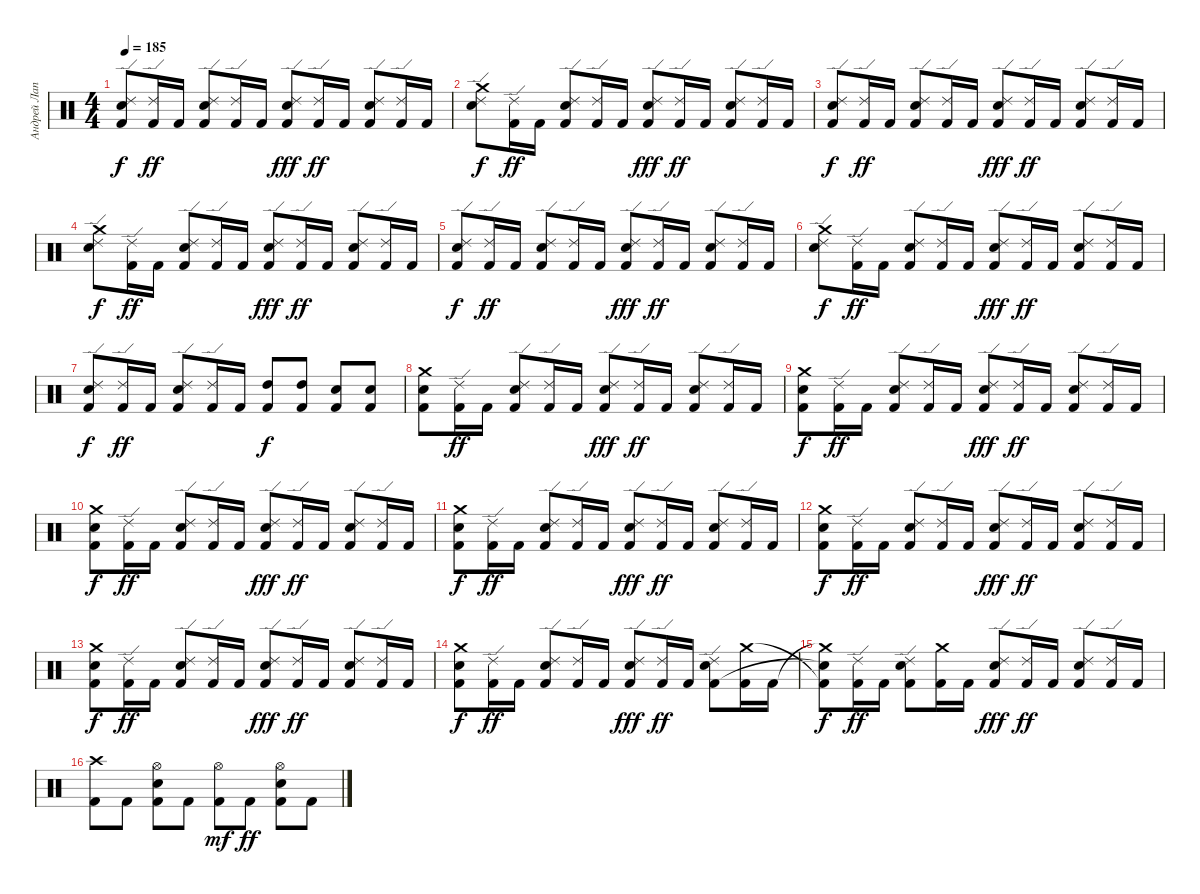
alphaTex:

\track ("Андрей Лаптев" "Андрей Лап") {instrument percussion}
\staff {score}
\articulation defaults
\ts (4 4)
\tempo 185
\clef neutral
\ks c
("Ride (edge) 2" "Kick (hit) 2" "Electric Snare (hit)").8{dy f} ("Kick (hit) 2" "Ride (edge) 2").16{dy ff} "Kick (hit) 2".16 ("Kick (hit) 2" "Electric Snare (hit)" "Ride (edge) 2").8 ("Kick (hit) 2" "Ride (edge) 2").16 "Kick (hit) 2".16 ("Kick (hit) 2" "Ride (edge) 2" "Electric Snare (hit)").8{dy fff} ("Kick (hit) 2" "Ride (edge) 2").16{dy ff} "Kick (hit) 2".16 ("Ride (edge) 2" "Electric Snare (hit)" "Kick (hit) 2").8 ("Kick (hit) 2" "Ride (edge) 2").16 "Kick (hit) 2".16 |
("Ride (edge) 2" "Crash medium (hit)" "Electric Snare (hit)").8{dy f} ("Kick (hit) 2" "Ride (edge) 2").16{dy ff} "Kick (hit) 2".16 ("Kick (hit) 2" "Electric Snare (hit)" "Ride (edge) 2").8 ("Kick (hit) 2" "Ride (edge) 2").16 "Kick (hit) 2".16 ("Kick (hit) 2" "Ride (edge) 2" "Electric Snare (hit)").8{dy fff} ("Kick (hit) 2" "Ride (edge) 2").16{dy ff} "Kick (hit) 2".16 ("Ride (edge) 2" "Electric Snare (hit)" "Kick (hit) 2").8 ("Kick (hit) 2" "Ride (edge) 2").16 "Kick (hit) 2".16 |
("Ride (edge) 2" "Kick (hit) 2" "Electric Snare (hit)").8{dy f} ("Kick (hit) 2" "Ride (edge) 2").16{dy ff} "Kick (hit) 2".16 ("Kick (hit) 2" "Electric Snare (hit)" "Ride (edge) 2").8 ("Kick (hit) 2" "Ride (edge) 2").16 "Kick (hit) 2".16 ("Kick (hit) 2" "Ride (edge) 2" "Electric Snare (hit)").8{dy fff} ("Kick (hit) 2" "Ride (edge) 2").16{dy ff} "Kick (hit) 2".16 ("Ride (edge) 2" "Electric Snare (hit)" "Kick (hit) 2").8 ("Kick (hit) 2" "Ride (edge) 2").16 "Kick (hit) 2".16 |
("Ride (edge) 2" "Crash medium (hit)" "Electric Snare (hit)").8{dy f} ("Kick (hit) 2" "Ride (edge) 2").16{dy ff} "Kick (hit) 2".16 ("Kick (hit) 2" "Electric Snare (hit)" "Ride (edge) 2").8 ("Kick (hit) 2" "Ride (edge) 2").16 "Kick (hit) 2".16 ("Kick (hit) 2" "Ride (edge) 2" "Electric Snare (hit)").8{dy fff} ("Kick (hit) 2" "Ride (edge) 2").16{dy ff} "Kick (hit) 2".16 ("Ride (edge) 2" "Electric Snare (hit)" "Kick (hit) 2").8 ("Kick (hit) 2" "Ride (edge) 2").16 "Kick (hit) 2".16 |
("Ride (edge) 2" "Kick (hit) 2" "Electric Snare (hit)").8{dy f} ("Kick (hit) 2" "Ride (edge) 2").16{dy ff} "Kick (hit) 2".16 ("Kick (hit) 2" "Electric Snare (hit)" "Ride (edge) 2").8 ("Kick (hit) 2" "Ride (edge) 2").16 "Kick (hit) 2".16 ("Kick (hit) 2" "Ride (edge) 2" "Electric Snare (hit)").8{dy fff} ("Kick (hit) 2" "Ride (edge) 2").16{dy ff} "Kick (hit) 2".16 ("Ride (edge) 2" "Electric Snare (hit)" "Kick (hit) 2").8 ("Kick (hit) 2" "Ride (edge) 2").16 "Kick (hit) 2".16 |
("Ride (edge) 2" "Crash medium (hit)" "Electric Snare (hit)").8{dy f} ("Kick (hit) 2" "Ride (edge) 2").16{dy ff} "Kick (hit) 2".16 ("Kick (hit) 2" "Electric Snare (hit)" "Ride (edge) 2").8 ("Kick (hit) 2" "Ride (edge) 2").16 "Kick (hit) 2".16 ("Kick (hit) 2" "Ride (edge) 2" "Electric Snare (hit)").8{dy fff} ("Kick (hit) 2" "Ride (edge) 2").16{dy ff} "Kick (hit) 2".16 ("Ride (edge) 2" "Electric Snare (hit)" "Kick (hit) 2").8 ("Kick (hit) 2" "Ride (edge) 2").16 "Kick (hit) 2".16 |
("Ride (edge) 2" "Kick (hit) 2" "Electric Snare (hit)").8{dy f} ("Kick (hit) 2" "Ride (edge) 2").16{dy ff} "Kick (hit) 2".16 ("Kick (hit) 2" "Electric Snare (hit)" "Ride (edge) 2").8 ("Kick (hit) 2" "Ride (edge) 2").16 "Kick (hit) 2".16 ("High Tom (hit)" "Kick (hit) 2").8{dy f} ("High Tom (hit)" "Kick (hit) 2").8 ("Electric Snare (hit)" "Kick (hit) 2").8 ("Electric Snare (hit)" "Kick (hit) 2").8 |
("Kick (hit) 2" "Crash medium (hit)" "Electric Snare (hit)").8 ("Kick (hit) 2" "Ride (edge) 2").16{dy ff} "Kick (hit) 2".16 ("Kick (hit) 2" "Electric Snare (hit)" "Ride (edge) 2").8 ("Kick (hit) 2" "Ride (edge) 2").16 "Kick (hit) 2".16 ("Kick (hit) 2" "Ride (edge) 2" "Electric Snare (hit)").8{dy fff} ("Kick (hit) 2" "Ride (edge) 2").16{dy ff} "Kick (hit) 2".16 ("Ride (edge) 2" "Electric Snare (hit)" "Kick (hit) 2").8 ("Kick (hit) 2" "Ride (edge) 2").16 "Kick (hit) 2".16 |
("Crash medium (hit)" "Kick (hit) 2" "Electric Snare (hit)").8{dy f} ("Kick (hit) 2" "Ride (edge) 2").16{dy ff} "Kick (hit) 2".16 ("Kick (hit) 2" "Electric Snare (hit)" "Ride (edge) 2").8 ("Kick (hit) 2" "Ride (edge) 2").16 "Kick (hit) 2".16 ("Kick (hit) 2" "Ride (edge) 2" "Electric Snare (hit)").8{dy fff} ("Kick (hit) 2" "Ride (edge) 2").16{dy ff} "Kick (hit) 2".16 ("Ride (edge) 2" "Electric Snare (hit)" "Kick (hit) 2").8 ("Kick (hit) 2" "Ride (edge) 2").16 "Kick (hit) 2".16 |
("Kick (hit) 2" "Crash medium (hit)" "Electric Snare (hit)").8{dy f} ("Kick (hit) 2" "Ride (edge) 2").16{dy ff} "Kick (hit) 2".16 ("Kick (hit) 2" "Electric Snare (hit)" "Ride (edge) 2").8 ("Kick (hit) 2" "Ride (edge) 2").16 "Kick (hit) 2".16 ("Kick (hit) 2" "Ride (edge) 2" "Electric Snare (hit)").8{dy fff} ("Kick (hit) 2" "Ride (edge) 2").16{dy ff} "Kick (hit) 2".16 ("Ride (edge) 2" "Electric Snare (hit)" "Kick (hit) 2").8 ("Kick (hit) 2" "Ride (edge) 2").16 "Kick (hit) 2".16 |
("Crash medium (hit)" "Kick (hit) 2" "Electric Snare (hit)").8{dy f} ("Kick (hit) 2" "Ride (edge) 2").16{dy ff} "Kick (hit) 2".16 ("Kick (hit) 2" "Electric Snare (hit)" "Ride (edge) 2").8 ("Kick (hit) 2" "Ride (edge) 2").16 "Kick (hit) 2".16 ("Kick (hit) 2" "Ride (edge) 2" "Electric Snare (hit)").8{dy fff} ("Kick (hit) 2" "Ride (edge) 2").16{dy ff} "Kick (hit) 2".16 ("Ride (edge) 2" "Electric Snare (hit)" "Kick (hit) 2").8 ("Kick (hit) 2" "Ride (edge) 2").16 "Kick (hit) 2".16 |
("Kick (hit) 2" "Crash medium (hit)" "Electric Snare (hit)").8{dy f} ("Kick (hit) 2" "Ride (edge) 2").16{dy ff} "Kick (hit) 2".16 ("Kick (hit) 2" "Electric Snare (hit)" "Ride (edge) 2").8 ("Kick (hit) 2" "Ride (edge) 2").16 "Kick (hit) 2".16 ("Kick (hit) 2" "Ride (edge) 2" "Electric Snare (hit)").8{dy fff} ("Kick (hit) 2" "Ride (edge) 2").16{dy ff} "Kick (hit) 2".16 ("Ride (edge) 2" "Electric Snare (hit)" "Kick (hit) 2").8 ("Kick (hit) 2" "Ride (edge) 2").16 "Kick (hit) 2".16 |
("Crash medium (hit)" "Kick (hit) 2" "Electric Snare (hit)").8{dy f} ("Kick (hit) 2" "Ride (edge) 2").16{dy ff} "Kick (hit) 2".16 ("Kick (hit) 2" "Electric Snare (hit)" "Ride (edge) 2").8 ("Kick (hit) 2" "Ride (edge) 2").16 "Kick (hit) 2".16 ("Kick (hit) 2" "Ride (edge) 2" "Electric Snare (hit)").8{dy fff} ("Kick (hit) 2" "Ride (edge) 2").16{dy ff} "Kick (hit) 2".16 ("Ride (edge) 2" "Electric Snare (hit)" "Kick (hit) 2").8 ("Kick (hit) 2" "Ride (edge) 2").16 "Kick (hit) 2".16 |
("Crash medium (hit)" "Kick (hit) 2" "Electric Snare (hit)").8{dy f} ("Kick (hit) 2" "Ride (edge) 2").16{dy ff} "Kick (hit) 2".16 ("Kick (hit) 2" "Electric Snare (hit)" "Ride (edge) 2").8 ("Kick (hit) 2" "Ride (edge) 2").16 "Kick (hit) 2".16 ("Kick (hit) 2" "Ride (edge) 2" "Electric Snare (hit)").8{dy fff} ("Kick (hit) 2" "Ride (edge) 2").16{dy ff} "Kick (hit) 2".16 ("Ride (edge) 2" "Electric Snare (hit)" "Kick (hit) 2").8 ("Kick (hit) 2" "Crash medium (hit)").16 "Kick (hit) 2".16 |
("Crash medium (hit)"{t} "Kick (hit) 2"{t} "Electric Snare (hit)"{t}).8{dy f} ("Kick (hit) 2" "Ride (edge) 2").16{dy ff} "Kick (hit) 2".16 ("Kick (hit) 2" "Electric Snare (hit)" "Ride (edge) 2").8 ("Kick (hit) 2" "Crash medium (hit)").16 "Kick (hit) 2".16 ("Kick (hit) 2" "Ride (edge) 2" "Electric Snare (hit)").8{dy fff} ("Kick (hit) 2" "Ride (edge) 2").16{dy ff} "Kick (hit) 2".16 ("Ride (edge) 2" "Electric Snare (hit)" "Kick (hit) 2").8 ("Kick (hit) 2" "Ride (edge) 2").16 "Kick (hit) 2".16 |
("Crash high (hit)" "Kick (hit) 2").8 "Kick (hit) 2".8 ("Hi-Hat (open)" "Electric Snare (hit)" "Kick (hit) 2").8 "Kick (hit) 2".8 ("Kick (hit) 2" "Hi-Hat (open)").8{dy mf} "Kick (hit) 2".8{dy ff} ("Electric Snare (hit)" "Hi-Hat (open)" "Kick (hit) 2").8 "Kick (hit) 2".8
